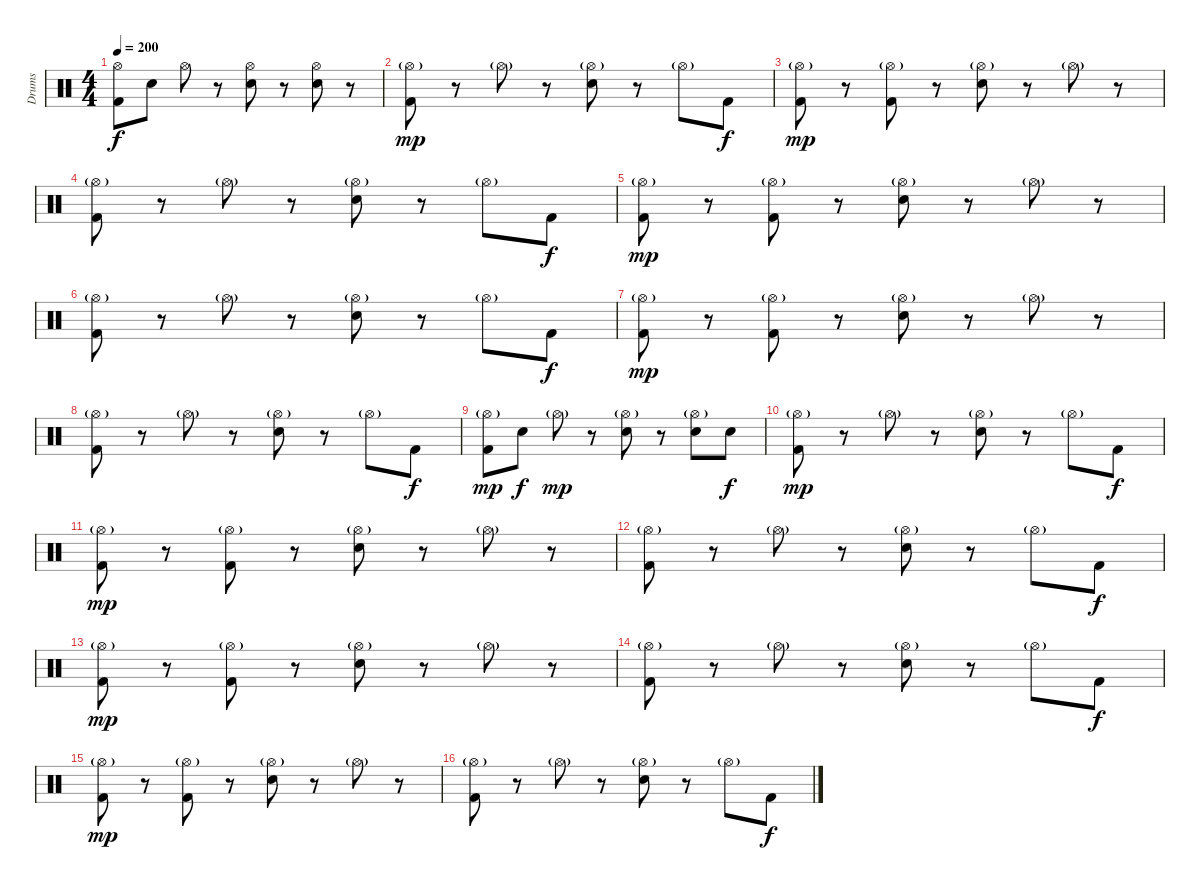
\track ("Drums" "Drums") {instrument percussion}
\staff {score}
\articulation defaults
\ts (4 4)
\tempo 200
\clef neutral
\ks c
("Hi-Hat (open)" "Kick (hit) 2").8{dy f} "Electric Snare (hit)".8 "Hi-Hat (open)".8 r.8 ("Hi-Hat (open)" "Electric Snare (hit)").8 r.8 ("Hi-Hat (open)" "Electric Snare (hit)").8 r.8 |
("Hi-Hat (open)"{g} "Kick (hit) 2").8{dy mp} r.8 "Hi-Hat (open)"{g}.8 r.8 ("Hi-Hat (open)"{g} "Electric Snare (hit)").8 r.8 "Hi-Hat (open)"{g}.8 "Kick (hit) 2".8{dy f} |
("Hi-Hat (open)"{g} "Kick (hit) 2").8{dy mp} r.8 ("Hi-Hat (open)"{g} "Kick (hit) 2").8 r.8 ("Hi-Hat (open)"{g} "Electric Snare (hit)").8 r.8 "Hi-Hat (open)"{g}.8 r.8 |
("Hi-Hat (open)"{g} "Kick (hit) 2").8 r.8 "Hi-Hat (open)"{g}.8 r.8 ("Hi-Hat (open)"{g} "Electric Snare (hit)").8 r.8 "Hi-Hat (open)"{g}.8 "Kick (hit) 2".8{dy f} |
("Hi-Hat (open)"{g} "Kick (hit) 2").8{dy mp} r.8 ("Hi-Hat (open)"{g} "Kick (hit) 2").8 r.8 ("Hi-Hat (open)"{g} "Electric Snare (hit)").8 r.8 "Hi-Hat (open)"{g}.8 r.8 |
("Hi-Hat (open)"{g} "Kick (hit) 2").8 r.8 "Hi-Hat (open)"{g}.8 r.8 ("Hi-Hat (open)"{g} "Electric Snare (hit)").8 r.8 "Hi-Hat (open)"{g}.8 "Kick (hit) 2".8{dy f} |
("Hi-Hat (open)"{g} "Kick (hit) 2").8{dy mp} r.8 ("Hi-Hat (open)"{g} "Kick (hit) 2").8 r.8 ("Hi-Hat (open)"{g} "Electric Snare (hit)").8 r.8 "Hi-Hat (open)"{g}.8 r.8 |
("Hi-Hat (open)"{g} "Kick (hit) 2").8 r.8 "Hi-Hat (open)"{g}.8 r.8 ("Hi-Hat (open)"{g} "Electric Snare (hit)").8 r.8 "Hi-Hat (open)"{g}.8 "Kick (hit) 2".8{dy f} |
("Hi-Hat (open)"{g} "Kick (hit) 2").8{dy mp} "Electric Snare (hit)".8{dy f} "Hi-Hat (open)"{g}.8{dy mp} r.8 ("Hi-Hat (open)"{g} "Electric Snare (hit)").8 r.8 ("Hi-Hat (open)"{g} "Electric Snare (hit)").8 "Electric Snare (hit)".8{dy f} |
("Hi-Hat (open)"{g} "Kick (hit) 2").8{dy mp} r.8 "Hi-Hat (open)"{g}.8 r.8 ("Hi-Hat (open)"{g} "Electric Snare (hit)").8 r.8 "Hi-Hat (open)"{g}.8 "Kick (hit) 2".8{dy f} |
("Hi-Hat (open)"{g} "Kick (hit) 2").8{dy mp} r.8 ("Hi-Hat (open)"{g} "Kick (hit) 2").8 r.8 ("Hi-Hat (open)"{g} "Electric Snare (hit)").8 r.8 "Hi-Hat (open)"{g}.8 r.8 |
("Hi-Hat (open)"{g} "Kick (hit) 2").8 r.8 "Hi-Hat (open)"{g}.8 r.8 ("Hi-Hat (open)"{g} "Electric Snare (hit)").8 r.8 "Hi-Hat (open)"{g}.8 "Kick (hit) 2".8{dy f} |
("Hi-Hat (open)"{g} "Kick (hit) 2").8{dy mp} r.8 ("Hi-Hat (open)"{g} "Kick (hit) 2").8 r.8 ("Hi-Hat (open)"{g} "Electric Snare (hit)").8 r.8 "Hi-Hat (open)"{g}.8 r.8 |
("Hi-Hat (open)"{g} "Kick (hit) 2").8 r.8 "Hi-Hat (open)"{g}.8 r.8 ("Hi-Hat (open)"{g} "Electric Snare (hit)").8 r.8 "Hi-Hat (open)"{g}.8 "Kick (hit) 2".8{dy f} |
("Hi-Hat (open)"{g} "Kick (hit) 2").8{dy mp} r.8 ("Hi-Hat (open)"{g} "Kick (hit) 2").8 r.8 ("Hi-Hat (open)"{g} "Electric Snare (hit)").8 r.8 "Hi-Hat (open)"{g}.8 r.8 |
("Hi-Hat (open)"{g} "Kick (hit) 2").8 r.8 "Hi-Hat (open)"{g}.8 r.8 ("Hi-Hat (open)"{g} "Electric Snare (hit)").8 r.8 "Hi-Hat (open)"{g}.8 "Kick (hit) 2".8{dy f}
